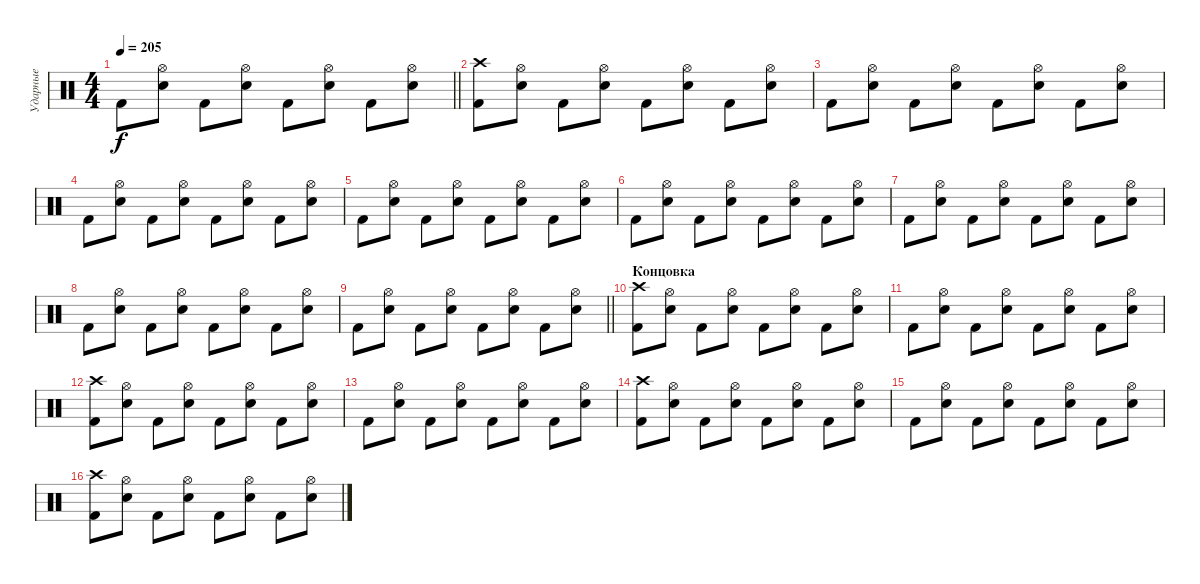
\track ("Ударные" "Ударные") {instrument percussion}
\staff {score}
\articulation defaults
\ts (4 4)
\tempo 205
\clef neutral
\barLineRight lightlight
\ks c "Kick (hit) 2".8{dy f}
("Hi-Hat (open)" "Electric Snare (hit)").8 "Kick (hit) 2".8 ("Hi-Hat (open)" "Electric Snare (hit)").8 "Kick (hit) 2".8 ("Hi-Hat (open)" "Electric Snare (hit)").8 "Kick (hit) 2".8 ("Hi-Hat (open)" "Electric Snare (hit)").8 |
("Crash high (hit)" "Kick (hit) 2").8 ("Hi-Hat (open)" "Electric Snare (hit)").8 "Kick (hit) 2".8 ("Hi-Hat (open)" "Electric Snare (hit)").8 "Kick (hit) 2".8 ("Hi-Hat (open)" "Electric Snare (hit)").8 "Kick (hit) 2".8 ("Hi-Hat (open)" "Electric Snare (hit)").8 |
"Kick (hit) 2".8 ("Hi-Hat (open)" "Electric Snare (hit)").8 "Kick (hit) 2".8 ("Hi-Hat (open)" "Electric Snare (hit)").8 "Kick (hit) 2".8 ("Hi-Hat (open)" "Electric Snare (hit)").8 "Kick (hit) 2".8 ("Hi-Hat (open)" "Electric Snare (hit)").8 |
"Kick (hit) 2".8 ("Hi-Hat (open)" "Electric Snare (hit)").8 "Kick (hit) 2".8 ("Hi-Hat (open)" "Electric Snare (hit)").8 "Kick (hit) 2".8 ("Hi-Hat (open)" "Electric Snare (hit)").8 "Kick (hit) 2".8 ("Hi-Hat (open)" "Electric Snare (hit)").8 |
"Kick (hit) 2".8 ("Hi-Hat (open)" "Electric Snare (hit)").8 "Kick (hit) 2".8 ("Hi-Hat (open)" "Electric Snare (hit)").8 "Kick (hit) 2".8 ("Hi-Hat (open)" "Electric Snare (hit)").8 "Kick (hit) 2".8 ("Hi-Hat (open)" "Electric Snare (hit)").8 |
"Kick (hit) 2".8 ("Hi-Hat (open)" "Electric Snare (hit)").8 "Kick (hit) 2".8 ("Hi-Hat (open)" "Electric Snare (hit)").8 "Kick (hit) 2".8 ("Hi-Hat (open)" "Electric Snare (hit)").8 "Kick (hit) 2".8 ("Hi-Hat (open)" "Electric Snare (hit)").8 |
"Kick (hit) 2".8 ("Hi-Hat (open)" "Electric Snare (hit)").8 "Kick (hit) 2".8 ("Hi-Hat (open)" "Electric Snare (hit)").8 "Kick (hit) 2".8 ("Hi-Hat (open)" "Electric Snare (hit)").8 "Kick (hit) 2".8 ("Hi-Hat (open)" "Electric Snare (hit)").8 |
"Kick (hit) 2".8 ("Hi-Hat (open)" "Electric Snare (hit)").8 "Kick (hit) 2".8 ("Hi-Hat (open)" "Electric Snare (hit)").8 "Kick (hit) 2".8 ("Hi-Hat (open)" "Electric Snare (hit)").8 "Kick (hit) 2".8 ("Hi-Hat (open)" "Electric Snare (hit)").8 |
\barLineRight lightlight "Kick (hit) 2".8
("Hi-Hat (open)" "Electric Snare (hit)").8 "Kick (hit) 2".8 ("Hi-Hat (open)" "Electric Snare (hit)").8 "Kick (hit) 2".8 ("Hi-Hat (open)" "Electric Snare (hit)").8 "Kick (hit) 2".8 ("Hi-Hat (open)" "Electric Snare (hit)").8 |
\section ("" "Концовка")
("Crash high (hit)" "Kick (hit) 2").8 ("Hi-Hat (open)" "Electric Snare (hit)").8 "Kick (hit) 2".8 ("Hi-Hat (open)" "Electric Snare (hit)").8 "Kick (hit) 2".8 ("Hi-Hat (open)" "Electric Snare (hit)").8 "Kick (hit) 2".8 ("Hi-Hat (open)" "Electric Snare (hit)").8 |
"Kick (hit) 2".8 ("Hi-Hat (open)" "Electric Snare (hit)").8 "Kick (hit) 2".8 ("Hi-Hat (open)" "Electric Snare (hit)").8 "Kick (hit) 2".8 ("Hi-Hat (open)" "Electric Snare (hit)").8 "Kick (hit) 2".8 ("Hi-Hat (open)" "Electric Snare (hit)").8 |
("Crash high (hit)" "Kick (hit) 2").8 ("Hi-Hat (open)" "Electric Snare (hit)").8 "Kick (hit) 2".8 ("Hi-Hat (open)" "Electric Snare (hit)").8 "Kick (hit) 2".8 ("Hi-Hat (open)" "Electric Snare (hit)").8 "Kick (hit) 2".8 ("Hi-Hat (open)" "Electric Snare (hit)").8 |
"Kick (hit) 2".8 ("Hi-Hat (open)" "Electric Snare (hit)").8 "Kick (hit) 2".8 ("Hi-Hat (open)" "Electric Snare (hit)").8 "Kick (hit) 2".8 ("Hi-Hat (open)" "Electric Snare (hit)").8 "Kick (hit) 2".8 ("Hi-Hat (open)" "Electric Snare (hit)").8 |
("Crash high (hit)" "Kick (hit) 2").8 ("Hi-Hat (open)" "Electric Snare (hit)").8 "Kick (hit) 2".8 ("Hi-Hat (open)" "Electric Snare (hit)").8 "Kick (hit) 2".8 ("Hi-Hat (open)" "Electric Snare (hit)").8 "Kick (hit) 2".8 ("Hi-Hat (open)" "Electric Snare (hit)").8 |
"Kick (hit) 2".8 ("Hi-Hat (open)" "Electric Snare (hit)").8 "Kick (hit) 2".8 ("Hi-Hat (open)" "Electric Snare (hit)").8 "Kick (hit) 2".8 ("Hi-Hat (open)" "Electric Snare (hit)").8 "Kick (hit) 2".8 ("Hi-Hat (open)" "Electric Snare (hit)").8 |
("Crash high (hit)" "Kick (hit) 2").8 ("Hi-Hat (open)" "Electric Snare (hit)").8 "Kick (hit) 2".8 ("Hi-Hat (open)" "Electric Snare (hit)").8 "Kick (hit) 2".8 ("Hi-Hat (open)" "Electric Snare (hit)").8 "Kick (hit) 2".8 ("Hi-Hat (open)" "Electric Snare (hit)").8
